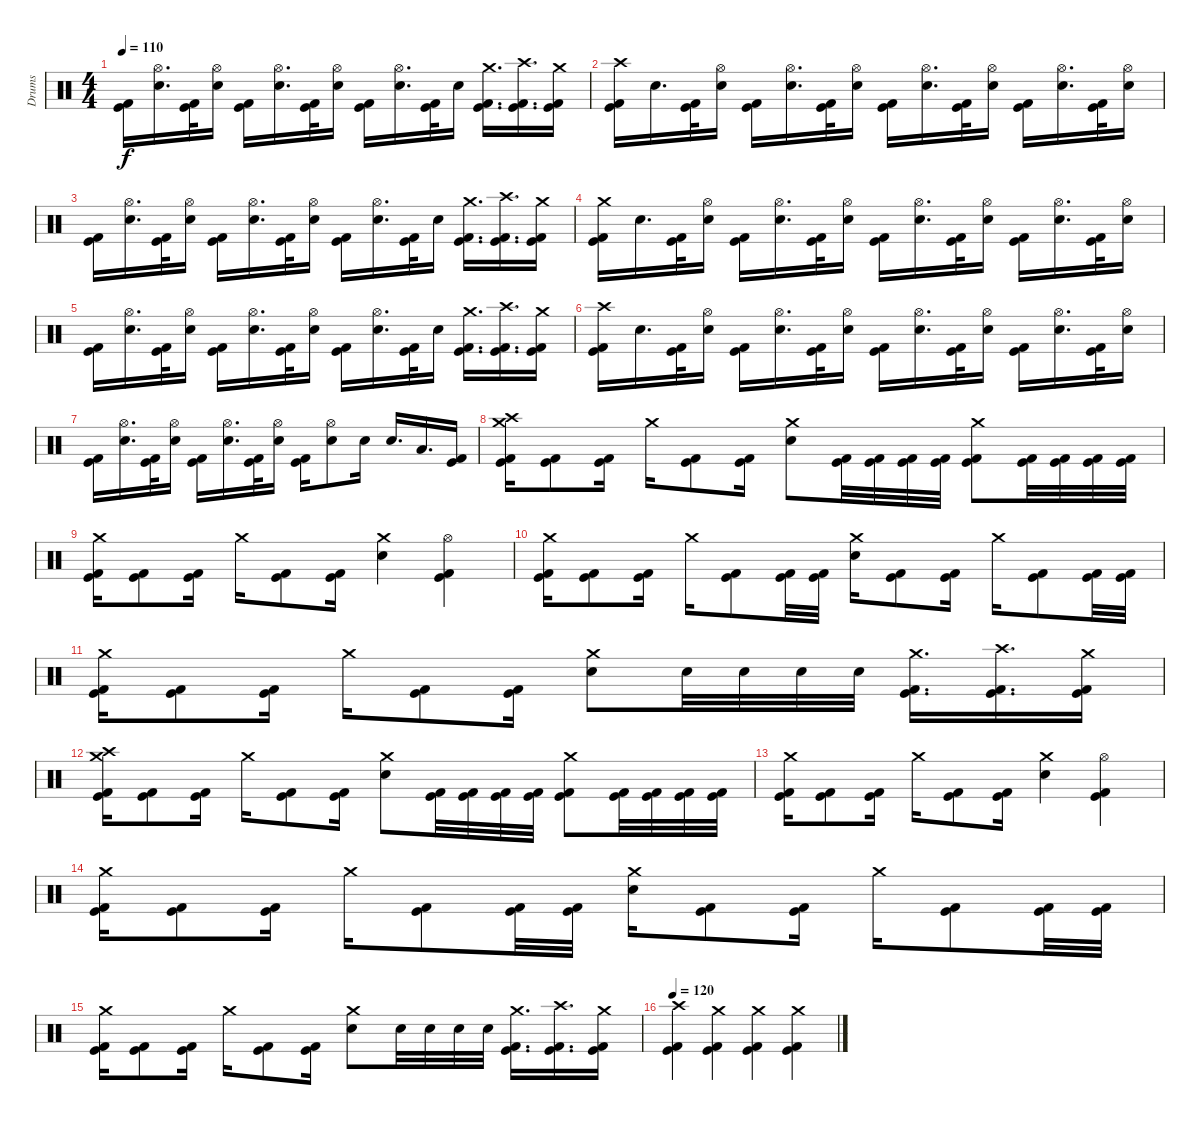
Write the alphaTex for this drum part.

\track ("Drums" "Drums") {instrument percussion}
\staff {score}
\articulation defaults
\ts (4 4)
\tempo 110
\clef neutral
\ks c
("Kick (hit)" "Kick (hit) 2").16{dy f} ("Hi-Hat (open)" "Electric Snare (hit)").16{d} ("Kick (hit)" "Kick (hit) 2").32 ("Hi-Hat (open)" "Electric Snare (hit)").16 ("Kick (hit)" "Kick (hit) 2").16 ("Hi-Hat (open)" "Electric Snare (hit)").16{d} ("Kick (hit)" "Kick (hit) 2").32 ("Hi-Hat (open)" "Electric Snare (hit)").16 ("Kick (hit)" "Kick (hit) 2").16 ("Hi-Hat (open)" "Electric Snare (hit)").16{d} ("Kick (hit)" "Kick (hit) 2").32 "Electric Snare (hit)".16 ("Crash medium (hit)" "Kick (hit)" "Kick (hit) 2").16{d} ("Crash high (hit)" "Kick (hit)" "Kick (hit) 2").16{d} ("Crash medium (hit)" "Kick (hit)" "Kick (hit) 2").16 |
("Crash high (hit)" "Kick (hit)" "Kick (hit) 2").16 "Electric Snare (hit)".16{d} ("Kick (hit)" "Kick (hit) 2").32 ("Hi-Hat (open)" "Electric Snare (hit)").16 ("Kick (hit)" "Kick (hit) 2").16 ("Hi-Hat (open)" "Electric Snare (hit)").16{d} ("Kick (hit)" "Kick (hit) 2").32 ("Hi-Hat (open)" "Electric Snare (hit)").16 ("Kick (hit)" "Kick (hit) 2").16 ("Hi-Hat (open)" "Electric Snare (hit)").16{d} ("Kick (hit)" "Kick (hit) 2").32 ("Hi-Hat (open)" "Electric Snare (hit)").16 ("Kick (hit)" "Kick (hit) 2").16 ("Hi-Hat (open)" "Electric Snare (hit)").16{d} ("Kick (hit)" "Kick (hit) 2").32 ("Hi-Hat (open)" "Electric Snare (hit)").16 |
("Kick (hit)" "Kick (hit) 2").16 ("Hi-Hat (open)" "Electric Snare (hit)").16{d} ("Kick (hit)" "Kick (hit) 2").32 ("Hi-Hat (open)" "Electric Snare (hit)").16 ("Kick (hit)" "Kick (hit) 2").16 ("Hi-Hat (open)" "Electric Snare (hit)").16{d} ("Kick (hit)" "Kick (hit) 2").32 ("Hi-Hat (open)" "Electric Snare (hit)").16 ("Kick (hit)" "Kick (hit) 2").16 ("Hi-Hat (open)" "Electric Snare (hit)").16{d} ("Kick (hit)" "Kick (hit) 2").32 "Electric Snare (hit)".16 ("Crash medium (hit)" "Kick (hit)" "Kick (hit) 2").16{d} ("Crash high (hit)" "Kick (hit)" "Kick (hit) 2").16{d} ("Crash medium (hit)" "Kick (hit)" "Kick (hit) 2").16 |
("Crash medium (hit)" "Kick (hit)" "Kick (hit) 2").16 "Electric Snare (hit)".16{d} ("Kick (hit)" "Kick (hit) 2").32 ("Hi-Hat (open)" "Electric Snare (hit)").16 ("Kick (hit)" "Kick (hit) 2").16 ("Hi-Hat (open)" "Electric Snare (hit)").16{d} ("Kick (hit)" "Kick (hit) 2").32 ("Hi-Hat (open)" "Electric Snare (hit)").16 ("Kick (hit)" "Kick (hit) 2").16 ("Hi-Hat (open)" "Electric Snare (hit)").16{d} ("Kick (hit)" "Kick (hit) 2").32 ("Hi-Hat (open)" "Electric Snare (hit)").16 ("Kick (hit)" "Kick (hit) 2").16 ("Hi-Hat (open)" "Electric Snare (hit)").16{d} ("Kick (hit)" "Kick (hit) 2").32 ("Hi-Hat (open)" "Electric Snare (hit)").16 |
("Kick (hit)" "Kick (hit) 2").16 ("Hi-Hat (open)" "Electric Snare (hit)").16{d} ("Kick (hit)" "Kick (hit) 2").32 ("Hi-Hat (open)" "Electric Snare (hit)").16 ("Kick (hit)" "Kick (hit) 2").16 ("Hi-Hat (open)" "Electric Snare (hit)").16{d} ("Kick (hit)" "Kick (hit) 2").32 ("Hi-Hat (open)" "Electric Snare (hit)").16 ("Kick (hit)" "Kick (hit) 2").16 ("Hi-Hat (open)" "Electric Snare (hit)").16{d} ("Kick (hit)" "Kick (hit) 2").32 "Electric Snare (hit)".16 ("Crash medium (hit)" "Kick (hit)" "Kick (hit) 2").16{d} ("Crash high (hit)" "Kick (hit)" "Kick (hit) 2").16{d} ("Crash medium (hit)" "Kick (hit)" "Kick (hit) 2").16 |
("Crash high (hit)" "Kick (hit)" "Kick (hit) 2").16 "Electric Snare (hit)".16{d} ("Kick (hit)" "Kick (hit) 2").32 ("Hi-Hat (open)" "Electric Snare (hit)").16 ("Kick (hit)" "Kick (hit) 2").16 ("Hi-Hat (open)" "Electric Snare (hit)").16{d} ("Kick (hit)" "Kick (hit) 2").32 ("Hi-Hat (open)" "Electric Snare (hit)").16 ("Kick (hit)" "Kick (hit) 2").16 ("Hi-Hat (open)" "Electric Snare (hit)").16{d} ("Kick (hit)" "Kick (hit) 2").32 ("Hi-Hat (open)" "Electric Snare (hit)").16 ("Kick (hit)" "Kick (hit) 2").16 ("Hi-Hat (open)" "Electric Snare (hit)").16{d} ("Kick (hit)" "Kick (hit) 2").32 ("Hi-Hat (open)" "Electric Snare (hit)").16 |
("Kick (hit)" "Kick (hit) 2").16 ("Hi-Hat (open)" "Electric Snare (hit)").16{d} ("Kick (hit)" "Kick (hit) 2").32 ("Hi-Hat (open)" "Electric Snare (hit)").16 ("Kick (hit)" "Kick (hit) 2").16 ("Hi-Hat (open)" "Electric Snare (hit)").16{d} ("Kick (hit)" "Kick (hit) 2").32 ("Hi-Hat (open)" "Electric Snare (hit)").16 ("Kick (hit)" "Kick (hit) 2").16 ("Hi-Hat (open)" "Electric Snare (hit)").8 "Electric Snare (hit)".16 "Electric Snare (hit)".16{d} "Low Tom (hit)".16{d} ("Kick (hit)" "Kick (hit) 2").16 |
("Crash high (hit)" "Crash medium (hit)" "Kick (hit)" "Kick (hit) 2").16 ("Kick (hit)" "Kick (hit) 2").8 ("Kick (hit)" "Kick (hit) 2").16 "Crash medium (hit)".16 ("Kick (hit)" "Kick (hit) 2").8 ("Kick (hit)" "Kick (hit) 2").16 ("Crash medium (hit)" "Electric Snare (hit)").8 ("Kick (hit)" "Kick (hit) 2").32 ("Kick (hit)" "Kick (hit) 2").32 ("Kick (hit)" "Kick (hit) 2").32 ("Kick (hit)" "Kick (hit) 2").32 ("Crash medium (hit)" "Kick (hit)" "Kick (hit) 2").8 ("Kick (hit)" "Kick (hit) 2").32 ("Kick (hit)" "Kick (hit) 2").32 ("Kick (hit)" "Kick (hit) 2").32 ("Kick (hit)" "Kick (hit) 2").32 |
("Crash medium (hit)" "Kick (hit)" "Kick (hit) 2").16 ("Kick (hit)" "Kick (hit) 2").8 ("Kick (hit)" "Kick (hit) 2").16 "Crash medium (hit)".16 ("Kick (hit)" "Kick (hit) 2").8 ("Kick (hit)" "Kick (hit) 2").16 ("Crash medium (hit)" "Electric Snare (hit)").4 ("Hi-Hat (open)" "Kick (hit)" "Kick (hit) 2").4 |
("Crash medium (hit)" "Kick (hit)" "Kick (hit) 2").16 ("Kick (hit)" "Kick (hit) 2").8 ("Kick (hit)" "Kick (hit) 2").16 "Crash medium (hit)".16 ("Kick (hit)" "Kick (hit) 2").8 ("Kick (hit)" "Kick (hit) 2").32 ("Kick (hit)" "Kick (hit) 2").32 ("Crash medium (hit)" "Electric Snare (hit)").16 ("Kick (hit)" "Kick (hit) 2").8 ("Kick (hit)" "Kick (hit) 2").16 "Crash medium (hit)".16 ("Kick (hit)" "Kick (hit) 2").8 ("Kick (hit)" "Kick (hit) 2").32 ("Kick (hit)" "Kick (hit) 2").32 |
("Crash medium (hit)" "Kick (hit)" "Kick (hit) 2").16 ("Kick (hit)" "Kick (hit) 2").8 ("Kick (hit)" "Kick (hit) 2").16 "Crash medium (hit)".16 ("Kick (hit)" "Kick (hit) 2").8 ("Kick (hit)" "Kick (hit) 2").16 ("Crash medium (hit)" "Electric Snare (hit)").8 "Electric Snare (hit)".32 "Electric Snare (hit)".32 "Electric Snare (hit)".32 "Electric Snare (hit)".32 ("Crash medium (hit)" "Kick (hit)" "Kick (hit) 2").16{d} ("Crash high (hit)" "Kick (hit)" "Kick (hit) 2").16{d} ("Crash medium (hit)" "Kick (hit)" "Kick (hit) 2").16 |
("Crash high (hit)" "Crash medium (hit)" "Kick (hit)" "Kick (hit) 2").16 ("Kick (hit)" "Kick (hit) 2").8 ("Kick (hit)" "Kick (hit) 2").16 "Crash medium (hit)".16 ("Kick (hit)" "Kick (hit) 2").8 ("Kick (hit)" "Kick (hit) 2").16 ("Crash medium (hit)" "Electric Snare (hit)").8 ("Kick (hit)" "Kick (hit) 2").32 ("Kick (hit)" "Kick (hit) 2").32 ("Kick (hit)" "Kick (hit) 2").32 ("Kick (hit)" "Kick (hit) 2").32 ("Crash medium (hit)" "Kick (hit)" "Kick (hit) 2").8 ("Kick (hit)" "Kick (hit) 2").32 ("Kick (hit)" "Kick (hit) 2").32 ("Kick (hit)" "Kick (hit) 2").32 ("Kick (hit)" "Kick (hit) 2").32 |
("Crash medium (hit)" "Kick (hit)" "Kick (hit) 2").16 ("Kick (hit)" "Kick (hit) 2").8 ("Kick (hit)" "Kick (hit) 2").16 "Crash medium (hit)".16 ("Kick (hit)" "Kick (hit) 2").8 ("Kick (hit)" "Kick (hit) 2").16 ("Crash medium (hit)" "Electric Snare (hit)").4 ("Hi-Hat (open)" "Kick (hit)" "Kick (hit) 2").4 |
("Crash medium (hit)" "Kick (hit)" "Kick (hit) 2").16 ("Kick (hit)" "Kick (hit) 2").8 ("Kick (hit)" "Kick (hit) 2").16 "Crash medium (hit)".16 ("Kick (hit)" "Kick (hit) 2").8 ("Kick (hit)" "Kick (hit) 2").32 ("Kick (hit)" "Kick (hit) 2").32 ("Crash medium (hit)" "Electric Snare (hit)").16 ("Kick (hit)" "Kick (hit) 2").8 ("Kick (hit)" "Kick (hit) 2").16 "Crash medium (hit)".16 ("Kick (hit)" "Kick (hit) 2").8 ("Kick (hit)" "Kick (hit) 2").32 ("Kick (hit)" "Kick (hit) 2").32 |
("Crash medium (hit)" "Kick (hit)" "Kick (hit) 2").16 ("Kick (hit)" "Kick (hit) 2").8 ("Kick (hit)" "Kick (hit) 2").16 "Crash medium (hit)".16 ("Kick (hit)" "Kick (hit) 2").8 ("Kick (hit)" "Kick (hit) 2").16 ("Crash medium (hit)" "Electric Snare (hit)").8 "Electric Snare (hit)".32 "Electric Snare (hit)".32 "Electric Snare (hit)".32 "Electric Snare (hit)".32 ("Crash medium (hit)" "Kick (hit)" "Kick (hit) 2").16{d} ("Crash high (hit)" "Kick (hit)" "Kick (hit) 2").16{d} ("Crash medium (hit)" "Kick (hit)" "Kick (hit) 2").16 |
\tempo 120
("Crash high (hit)" "Kick (hit)" "Kick (hit) 2").4 ("Crash medium (hit)" "Kick (hit)" "Kick (hit) 2").4 ("Crash medium (hit)" "Kick (hit)" "Kick (hit) 2").4 ("Crash medium (hit)" "Kick (hit)" "Kick (hit) 2").4
